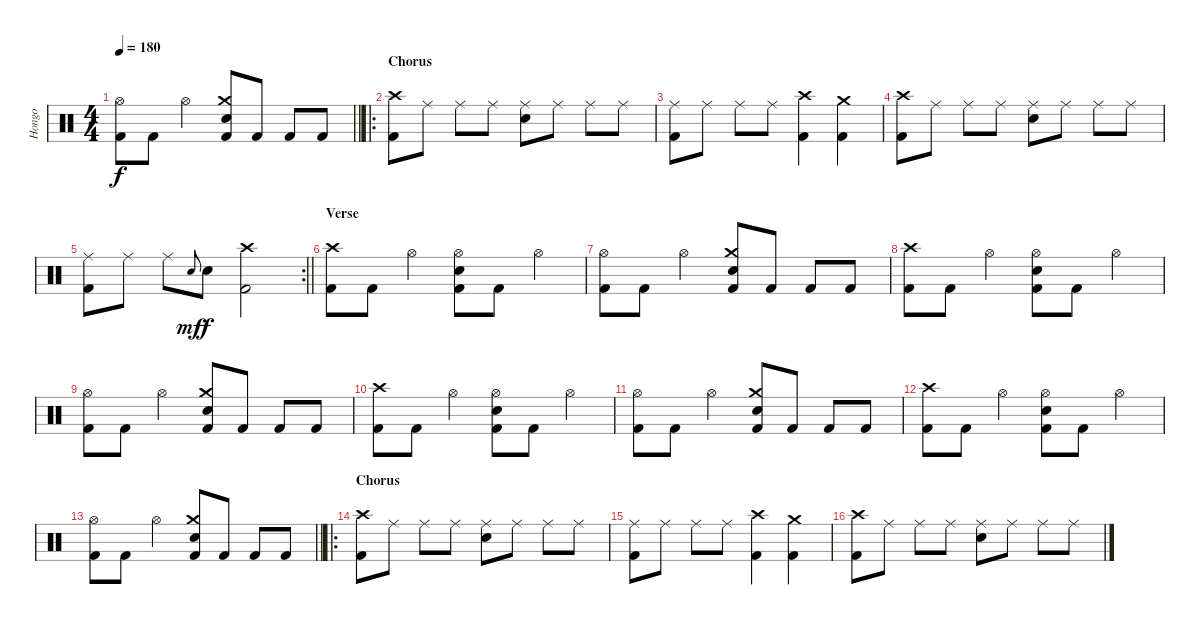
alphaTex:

\track ("Hongo" "Hongo") {instrument percussion}
\staff {score}
\articulation defaults
\ts (4 4)
\tempo 180
\clef neutral
\barLineRight lightlight
\ks c
("Hi-Hat (open)" "Kick (hit) 2").8{dy f} "Kick (hit) 2".8 "Hi-Hat (open)".4 ("Crash medium (hit)" "Electric Snare (hit)" "Kick (hit) 2").8 "Kick (hit) 2".8 "Kick (hit) 2".8 "Kick (hit) 2".8 |
\ro
\section ("" "Chorus")
("Crash high (hit)" "Kick (hit) 2").8 "Ride (middle)".8 "Ride (middle)".8 "Ride (middle)".8 ("Ride (middle)" "Electric Snare (hit)").8 "Ride (middle)".8 "Ride (middle)".8 "Ride (middle)".8 |
("Ride (middle)" "Kick (hit) 2").8 "Ride (middle)".8 "Ride (middle)".8 "Ride (middle)".8 ("Crash high (hit)" "Kick (hit) 2").4 ("Crash medium (hit)" "Kick (hit) 2").4 |
("Crash high (hit)" "Kick (hit) 2").8 "Ride (middle)".8 "Ride (middle)".8 "Ride (middle)".8 ("Ride (middle)" "Electric Snare (hit)").8 "Ride (middle)".8 "Ride (middle)".8 "Ride (middle)".8 |
\rc 2
\barLineRight lightlight
("Ride (middle)" "Kick (hit) 2").8 "Ride (middle)".8 "Ride (middle)".8 "Electric Snare (hit)"{h}.8{gr onbeat dy mf} "Electric Snare (hit)".8{dy f} ("Crash high (hit)" "Kick (hit) 2").2 |
\section ("" "Verse")
("Crash high (hit)" "Kick (hit) 2").8 "Kick (hit) 2".8 "Hi-Hat (open)".4 ("Hi-Hat (open)" "Electric Snare (hit)" "Kick (hit) 2").8 "Kick (hit) 2".8 "Hi-Hat (open)".4 |
("Hi-Hat (open)" "Kick (hit) 2").8 "Kick (hit) 2".8 "Hi-Hat (open)".4 ("Crash medium (hit)" "Electric Snare (hit)" "Kick (hit) 2").8 "Kick (hit) 2".8 "Kick (hit) 2".8 "Kick (hit) 2".8 |
("Crash high (hit)" "Kick (hit) 2").8 "Kick (hit) 2".8 "Hi-Hat (open)".4 ("Hi-Hat (open)" "Electric Snare (hit)" "Kick (hit) 2").8 "Kick (hit) 2".8 "Hi-Hat (open)".4 |
("Hi-Hat (open)" "Kick (hit) 2").8 "Kick (hit) 2".8 "Hi-Hat (open)".4 ("Crash medium (hit)" "Electric Snare (hit)" "Kick (hit) 2").8 "Kick (hit) 2".8 "Kick (hit) 2".8 "Kick (hit) 2".8 |
("Crash high (hit)" "Kick (hit) 2").8 "Kick (hit) 2".8 "Hi-Hat (open)".4 ("Hi-Hat (open)" "Electric Snare (hit)" "Kick (hit) 2").8 "Kick (hit) 2".8 "Hi-Hat (open)".4 |
("Hi-Hat (open)" "Kick (hit) 2").8 "Kick (hit) 2".8 "Hi-Hat (open)".4 ("Crash medium (hit)" "Electric Snare (hit)" "Kick (hit) 2").8 "Kick (hit) 2".8 "Kick (hit) 2".8 "Kick (hit) 2".8 |
("Crash high (hit)" "Kick (hit) 2").8 "Kick (hit) 2".8 "Hi-Hat (open)".4 ("Hi-Hat (open)" "Electric Snare (hit)" "Kick (hit) 2").8 "Kick (hit) 2".8 "Hi-Hat (open)".4 |
\barLineRight lightlight
("Hi-Hat (open)" "Kick (hit) 2").8 "Kick (hit) 2".8 "Hi-Hat (open)".4 ("Crash medium (hit)" "Electric Snare (hit)" "Kick (hit) 2").8 "Kick (hit) 2".8 "Kick (hit) 2".8 "Kick (hit) 2".8 |
\ro
\section ("" "Chorus")
("Crash high (hit)" "Kick (hit) 2").8 "Ride (middle)".8 "Ride (middle)".8 "Ride (middle)".8 ("Ride (middle)" "Electric Snare (hit)").8 "Ride (middle)".8 "Ride (middle)".8 "Ride (middle)".8 |
("Ride (middle)" "Kick (hit) 2").8 "Ride (middle)".8 "Ride (middle)".8 "Ride (middle)".8 ("Crash high (hit)" "Kick (hit) 2").4 ("Crash medium (hit)" "Kick (hit) 2").4 |
("Crash high (hit)" "Kick (hit) 2").8 "Ride (middle)".8 "Ride (middle)".8 "Ride (middle)".8 ("Ride (middle)" "Electric Snare (hit)").8 "Ride (middle)".8 "Ride (middle)".8 "Ride (middle)".8
